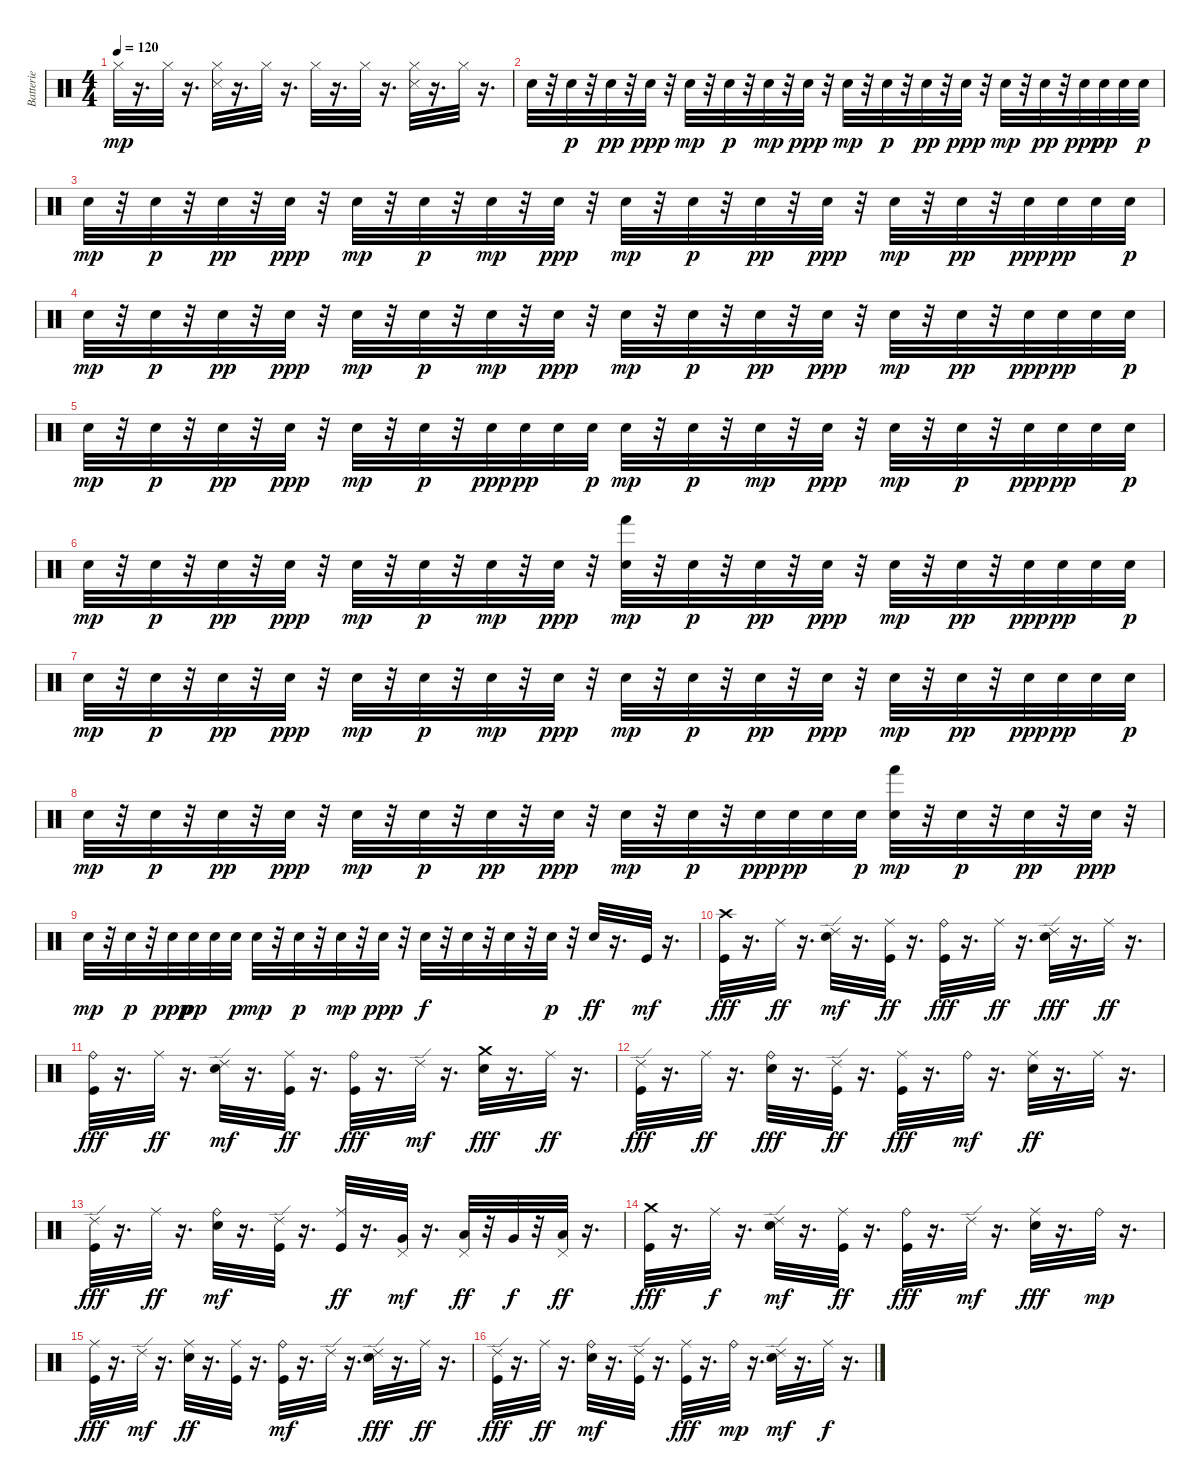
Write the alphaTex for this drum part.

\track ("Batterie" "Batterie") {instrument percussion}
\staff {score}
\articulation defaults
\ts (4 4)
\tempo 120
\clef neutral
\ks c "Hi-Hat (closed)".32{dy mp}
r.16{d} "Hi-Hat (closed)".32 r.16{d} ("Hi-Hat (closed)" "Snare (side stick) 3").32 r.16{d} "Hi-Hat (closed)".32 r.16{d} "Hi-Hat (closed)".32 r.16{d} "Hi-Hat (closed)".32 r.16{d} ("Snare (side stick) 3" "Hi-Hat (closed)").32 r.16{d} "Hi-Hat (closed)".32 r.16{d} |
"Snare (hit) 2".32 r.32 "Electric Snare (hit)".32{dy p} r.32 "Snare (hit) 2".32{dy pp} r.32 "Electric Snare (hit)".32{dy ppp} r.32 "Snare (hit) 2".32{dy mp} r.32 "Electric Snare (hit)".32{dy p} r.32 "Snare (hit) 2".32{dy mp} r.32 "Electric Snare (hit)".32{dy ppp} r.32 "Snare (hit) 2".32{dy mp} r.32 "Electric Snare (hit)".32{dy p} r.32 "Snare (hit) 2".32{dy pp} r.32 "Electric Snare (hit)".32{dy ppp} r.32 "Snare (hit) 2".32{dy mp} r.32 "Electric Snare (hit)".32{dy pp} r.32 "Electric Snare (hit)".32{dy ppp} "Electric Snare (hit)".32{dy pp} "Electric Snare (hit)".32 "Electric Snare (hit)".32{dy p} |
"Snare (hit) 2".32{dy mp} r.32 "Electric Snare (hit)".32{dy p} r.32 "Snare (hit) 2".32{dy pp} r.32 "Electric Snare (hit)".32{dy ppp} r.32 "Snare (hit) 2".32{dy mp} r.32 "Electric Snare (hit)".32{dy p} r.32 "Snare (hit) 2".32{dy mp} r.32 "Electric Snare (hit)".32{dy ppp} r.32 "Snare (hit) 2".32{dy mp} r.32 "Electric Snare (hit)".32{dy p} r.32 "Snare (hit) 2".32{dy pp} r.32 "Electric Snare (hit)".32{dy ppp} r.32 "Snare (hit) 2".32{dy mp} r.32 "Electric Snare (hit)".32{dy pp} r.32 "Electric Snare (hit)".32{dy ppp} "Electric Snare (hit)".32{dy pp} "Electric Snare (hit)".32 "Electric Snare (hit)".32{dy p} |
"Snare (hit) 2".32{dy mp} r.32 "Electric Snare (hit)".32{dy p} r.32 "Snare (hit) 2".32{dy pp} r.32 "Electric Snare (hit)".32{dy ppp} r.32 "Snare (hit) 2".32{dy mp} r.32 "Electric Snare (hit)".32{dy p} r.32 "Snare (hit) 2".32{dy mp} r.32 "Electric Snare (hit)".32{dy ppp} r.32 "Snare (hit) 2".32{dy mp} r.32 "Electric Snare (hit)".32{dy p} r.32 "Snare (hit) 2".32{dy pp} r.32 "Electric Snare (hit)".32{dy ppp} r.32 "Snare (hit) 2".32{dy mp} r.32 "Electric Snare (hit)".32{dy pp} r.32 "Electric Snare (hit)".32{dy ppp} "Electric Snare (hit)".32{dy pp} "Electric Snare (hit)".32 "Electric Snare (hit)".32{dy p} |
"Snare (hit) 2".32{dy mp} r.32 "Electric Snare (hit)".32{dy p} r.32 "Snare (hit) 2".32{dy pp} r.32 "Electric Snare (hit)".32{dy ppp} r.32 "Snare (hit) 2".32{dy mp} r.32 "Electric Snare (hit)".32{dy p} r.32 "Electric Snare (hit)".32{dy ppp} "Electric Snare (hit)".32{dy pp} "Electric Snare (hit)".32 "Electric Snare (hit)".32{dy p} "Snare (hit) 2".32{dy mp} r.32 "Electric Snare (hit)".32{dy p} r.32 "Snare (hit) 2".32{dy mp} r.32 "Electric Snare (hit)".32{dy ppp} r.32 "Snare (hit) 2".32{dy mp} r.32 "Electric Snare (hit)".32{dy p} r.32 "Electric Snare (hit)".32{dy ppp} "Electric Snare (hit)".32{dy pp} "Electric Snare (hit)".32 "Electric Snare (hit)".32{dy p} |
"Snare (hit) 2".32{dy mp} r.32 "Electric Snare (hit)".32{dy p} r.32 "Snare (hit) 2".32{dy pp} r.32 "Electric Snare (hit)".32{dy ppp} r.32 "Snare (hit) 2".32{dy mp} r.32 "Electric Snare (hit)".32{dy p} r.32 "Snare (hit) 2".32{dy mp} r.32 "Electric Snare (hit)".32{dy ppp} r.32 ("Snare (hit) 2" "Hand (hit)").32{dy mp} r.32 "Electric Snare (hit)".32{dy p} r.32 "Snare (hit) 2".32{dy pp} r.32 "Electric Snare (hit)".32{dy ppp} r.32 "Snare (hit) 2".32{dy mp} r.32 "Electric Snare (hit)".32{dy pp} r.32 "Electric Snare (hit)".32{dy ppp} "Electric Snare (hit)".32{dy pp} "Electric Snare (hit)".32 "Electric Snare (hit)".32{dy p} |
"Snare (hit) 2".32{dy mp} r.32 "Electric Snare (hit)".32{dy p} r.32 "Snare (hit) 2".32{dy pp} r.32 "Electric Snare (hit)".32{dy ppp} r.32 "Snare (hit) 2".32{dy mp} r.32 "Electric Snare (hit)".32{dy p} r.32 "Snare (hit) 2".32{dy mp} r.32 "Electric Snare (hit)".32{dy ppp} r.32 "Snare (hit) 2".32{dy mp} r.32 "Electric Snare (hit)".32{dy p} r.32 "Snare (hit) 2".32{dy pp} r.32 "Electric Snare (hit)".32{dy ppp} r.32 "Snare (hit) 2".32{dy mp} r.32 "Electric Snare (hit)".32{dy pp} r.32 "Electric Snare (hit)".32{dy ppp} "Electric Snare (hit)".32{dy pp} "Electric Snare (hit)".32 "Electric Snare (hit)".32{dy p} |
"Snare (hit) 2".32{dy mp} r.32 "Electric Snare (hit)".32{dy p} r.32 "Snare (hit) 2".32{dy pp} r.32 "Electric Snare (hit)".32{dy ppp} r.32 "Snare (hit) 2".32{dy mp} r.32 "Electric Snare (hit)".32{dy p} r.32 "Snare (hit) 2".32{dy pp} r.32 "Electric Snare (hit)".32{dy ppp} r.32 "Snare (hit) 2".32{dy mp} r.32 "Electric Snare (hit)".32{dy p} r.32 "Electric Snare (hit)".32{dy ppp} "Electric Snare (hit)".32{dy pp} "Electric Snare (hit)".32 "Electric Snare (hit)".32{dy p} ("Hand (hit)" "Snare (hit) 2").32{dy mp} r.32 "Electric Snare (hit)".32{dy p} r.32 "Snare (hit) 2".32{dy pp} r.32 "Electric Snare (hit)".32{dy ppp} r.32 |
"Snare (hit) 2".32{dy mp} r.32 "Electric Snare (hit)".32{dy p} r.32 "Electric Snare (hit)".32{dy ppp} "Electric Snare (hit)".32{dy pp} "Electric Snare (hit)".32 "Electric Snare (hit)".32{dy p} "Snare (hit) 2".32{dy mp} r.32 "Electric Snare (hit)".32{dy p} r.32 "Snare (hit) 2".32{dy mp} r.32 "Electric Snare (hit)".32{dy ppp} r.32 "Electric Snare (hit)".32{dy f} r.32 "Electric Snare (hit)".32 r.32 "Electric Snare (hit)".32 r.32 "Electric Snare (hit)".32{dy p} r.32 "Electric Snare (hit)".32{dy ff} r.16{d} "Kick (hit)".32{dy mf} r.16{d} |
("Crash high (hit)" "Kick (hit)").32{dy fff} r.16{d} "Ride (middle)".32{dy ff} r.16{d} ("Electric Snare (hit)" "Ride (edge) 2").32{dy mf} r.16{d} ("Kick (hit)" "Ride (middle)").32{dy ff} r.16{d} ("Ride (bell)" "Kick (hit)").32{dy fff} r.16{d} "Ride (middle)".32{dy ff} r.16{d} ("Ride (edge) 2" "Electric Snare (hit)").32{dy fff} r.16{d} "Ride (middle)".32{dy ff} r.16{d} |
("Ride (bell)" "Kick (hit)").32{dy fff} r.16{d} "Ride (middle)".32{dy ff} r.16{d} ("Electric Snare (hit)" "Ride (edge) 2").32{dy mf} r.16{d} ("Kick (hit)" "Ride (middle)").32{dy ff} r.16{d} ("Ride (bell)" "Kick (hit)").32{dy fff} r.16{d} "Ride (edge) 2".32{dy mf} r.16{d} ("Crash medium (hit)" "Electric Snare (hit)").32{dy fff} r.16{d} "Ride (middle)".32{dy ff} r.16{d} |
("Ride (edge) 2" "Kick (hit)").32{dy fff} r.16{d} "Ride (middle)".32{dy ff} r.16{d} ("Ride (bell)" "Electric Snare (hit)").32{dy fff} r.16{d} ("Ride (edge) 2" "Kick (hit)").32{dy ff} r.16{d} ("Ride (middle)" "Kick (hit)").32{dy fff} r.16{d} "Ride (bell)".32{dy mf} r.16{d} ("Electric Snare (hit)" "Ride (middle)").32{dy ff} r.16{d} "Ride (middle)".32 r.16{d} |
("Kick (hit)" "Ride (edge) 2").32{dy fff} r.16{d} "Ride (middle)".32{dy ff} r.16{d} ("Electric Snare (hit)" "Ride (bell)").32{dy mf} r.16{d} ("Kick (hit)" "Ride (edge) 2").32 r.16{d} ("Kick (hit)" "Ride (middle)").32{dy ff} r.16{d} ("Very Low Tom (hit)" "Pedal Hi-Hat (hit)").32{dy mf} r.16{d} ("Pedal Hi-Hat (hit)" "Low Tom (hit)").32{dy ff} r.32 "Very Low Tom (hit)".32{dy f} r.32 ("Pedal Hi-Hat (hit)" "Low Floor Tom (hit)").32{dy ff} r.16{d} |
("Crash medium (hit)" "Kick (hit)").32{dy fff} r.16{d} "Ride (middle)".32{dy f} r.16{d} ("Electric Snare (hit)" "Ride (edge) 2").32{dy mf} r.16{d} ("Ride (middle)" "Kick (hit)").32{dy ff} r.16{d} ("Ride (bell)" "Kick (hit)").32{dy fff} r.16{d} "Ride (edge) 2".32{dy mf} r.16{d} ("Ride (middle)" "Electric Snare (hit)").32{dy fff} r.16{d} "Ride (bell)".32{dy mp} r.16{d} |
("Ride (middle)" "Kick (hit)").32{dy fff} r.16{d} "Ride (edge) 2".32{dy mf} r.16{d} ("Electric Snare (hit)" "Ride (middle)").32{dy ff} r.16{d} ("Kick (hit)" "Ride (middle)").32 r.16{d} ("Kick (hit)" "Ride (bell)").32{dy mf} r.16{d} "Ride (edge) 2".32 r.16{d} ("Ride (edge) 2" "Electric Snare (hit)").32{dy fff} r.16{d} "Ride (middle)".32{dy ff} r.16{d} |
("Ride (edge) 2" "Kick (hit)").32{dy fff} r.16{d} "Ride (middle)".32{dy ff} r.16{d} ("Electric Snare (hit)" "Ride (bell)").32{dy mf} r.16{d} ("Kick (hit)" "Ride (edge) 2").32 r.16{d} ("Kick (hit)" "Ride (middle)").32{dy fff} r.16{d} "Ride (bell)".32{dy mp} r.16{d} ("Electric Snare (hit)" "Ride (edge) 2").32{dy mf} r.16{d} "Ride (middle)".32{dy f} r.16{d}
